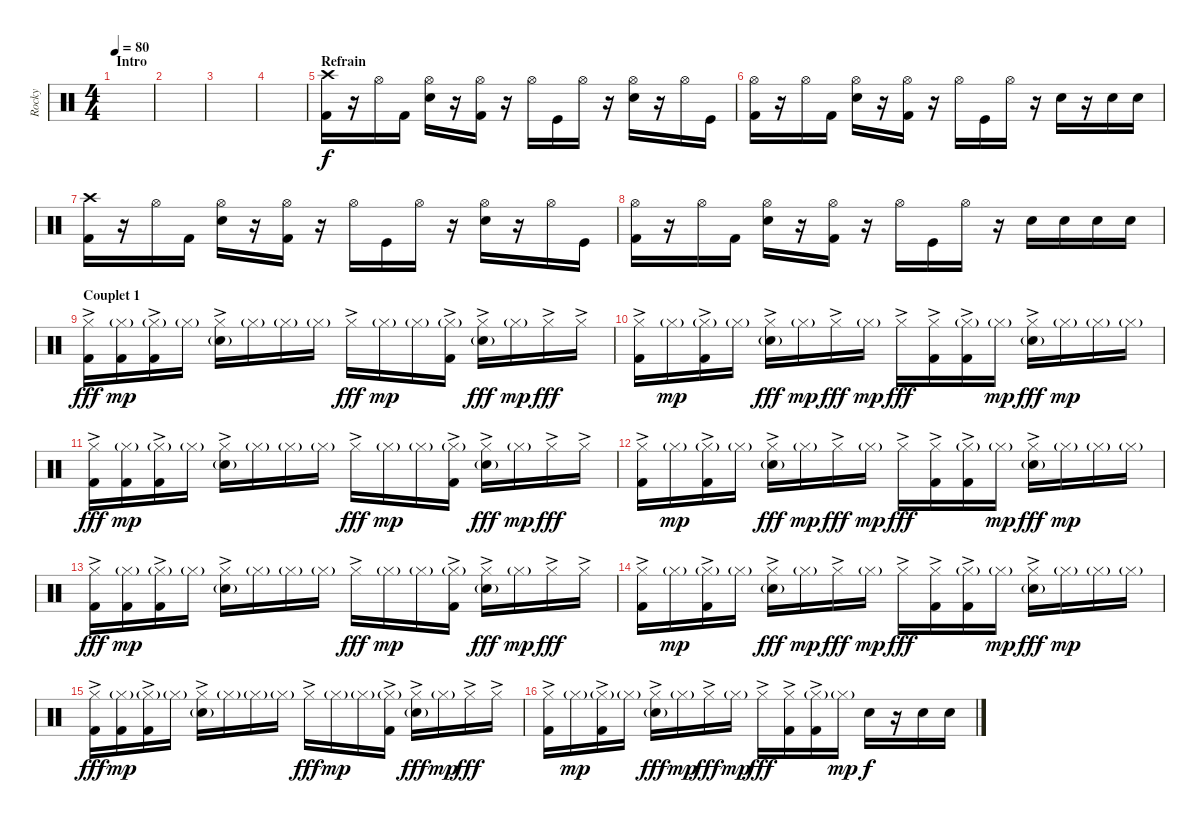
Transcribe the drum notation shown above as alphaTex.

\track ("Rocky" "Rocky") {instrument percussion}
\staff {score}
\articulation defaults
\ts (4 4)
\section ("" "Intro")
\tempo 80
\clef neutral
\ks c
|
|
|
|
\section ("" "Refrain")
("Crash high (hit)" "Kick (hit) 2").16 r.16 "Hi-Hat (open)".16 "Kick (hit) 2".16 ("Hi-Hat (open)" "Electric Snare (hit)").16 r.16 ("Hi-Hat (open)" "Kick (hit) 2").16 r.16 "Hi-Hat (open)".16 "Kick (hit)".16 "Hi-Hat (open)".16 r.16 ("Hi-Hat (open)" "Electric Snare (hit)").16 r.16 "Hi-Hat (open)".16 "Kick (hit)".16 |
("Hi-Hat (open)" "Kick (hit) 2").16 r.16 "Hi-Hat (open)".16 "Kick (hit) 2".16 ("Hi-Hat (open)" "Electric Snare (hit)").16 r.16 ("Hi-Hat (open)" "Kick (hit) 2").16 r.16 "Hi-Hat (open)".16 "Kick (hit)".16 "Hi-Hat (open)".16 r.16 "Electric Snare (hit)".16 r.16 "Electric Snare (hit)".16 "Electric Snare (hit)".16 |
("Crash high (hit)" "Kick (hit) 2").16 r.16 "Hi-Hat (open)".16 "Kick (hit) 2".16 ("Hi-Hat (open)" "Electric Snare (hit)").16 r.16 ("Hi-Hat (open)" "Kick (hit) 2").16 r.16 "Hi-Hat (open)".16 "Kick (hit)".16 "Hi-Hat (open)".16 r.16 ("Hi-Hat (open)" "Electric Snare (hit)").16 r.16 "Hi-Hat (open)".16 "Kick (hit)".16 |
("Hi-Hat (open)" "Kick (hit) 2").16 r.16 "Hi-Hat (open)".16 "Kick (hit) 2".16 ("Hi-Hat (open)" "Electric Snare (hit)").16 r.16 ("Hi-Hat (open)" "Kick (hit) 2").16 r.16 "Hi-Hat (open)".16 "Kick (hit)".16 "Hi-Hat (open)".16 r.16 "Electric Snare (hit)".16 "Electric Snare (hit)".16 "Electric Snare (hit)".16 "Electric Snare (hit)".16 |
\section ("" "Couplet 1")
("Kick (hit) 2"{ac} "Hi-Hat (closed)"{ac}).16{dy fff} ("Hi-Hat (closed)"{g} "Kick (hit) 2").16{dy mp} ("Kick (hit) 2"{ac} "Hi-Hat (closed)"{g}).16 "Hi-Hat (closed)"{g}.16 ("Snare (hit) 2"{g} "Hi-Hat (closed)"{ac}).16 "Hi-Hat (closed)"{g}.16 "Hi-Hat (closed)"{g}.16 "Hi-Hat (closed)"{g}.16 "Hi-Hat (closed)"{ac}.16{dy fff} "Hi-Hat (closed)"{g}.16{dy mp} "Hi-Hat (closed)"{g}.16 ("Kick (hit) 2"{ac} "Hi-Hat (closed)"{g ac}).16 ("Snare (hit) 2"{g} "Hi-Hat (closed)"{ac}).16{dy fff} "Hi-Hat (closed)"{g}.16{dy mp} "Hi-Hat (closed)"{ac}.16{dy fff} "Hi-Hat (closed)"{ac}.16 |
("Kick (hit) 2"{ac} "Hi-Hat (closed)"{ac}).16 "Hi-Hat (closed)"{g}.16{dy mp} ("Kick (hit) 2"{ac} "Hi-Hat (closed)"{g}).16 "Hi-Hat (closed)"{g}.16 ("Snare (hit) 2"{g} "Hi-Hat (closed)"{ac}).16{dy fff} "Hi-Hat (closed)"{g}.16{dy mp} "Hi-Hat (closed)"{ac}.16{dy fff} "Hi-Hat (closed)"{g}.16{dy mp} "Hi-Hat (closed)"{ac}.16{dy fff} ("Kick (hit) 2"{ac} "Hi-Hat (closed)"{ac}).16 ("Hi-Hat (closed)"{g} "Kick (hit) 2"{ac}).16 "Hi-Hat (closed)"{g}.16{dy mp} ("Snare (hit) 2"{g} "Hi-Hat (closed)"{ac}).16{dy fff} "Hi-Hat (closed)"{g}.16{dy mp} "Hi-Hat (closed)"{g}.16 "Hi-Hat (closed)"{g}.16 |
("Kick (hit) 2"{ac} "Hi-Hat (closed)"{ac}).16{dy fff} ("Hi-Hat (closed)"{g} "Kick (hit) 2").16{dy mp} ("Kick (hit) 2"{ac} "Hi-Hat (closed)"{g}).16 "Hi-Hat (closed)"{g}.16 ("Snare (hit) 2"{g} "Hi-Hat (closed)"{ac}).16 "Hi-Hat (closed)"{g}.16 "Hi-Hat (closed)"{g}.16 "Hi-Hat (closed)"{g}.16 "Hi-Hat (closed)"{ac}.16{dy fff} "Hi-Hat (closed)"{g}.16{dy mp} "Hi-Hat (closed)"{g}.16 ("Kick (hit) 2"{ac} "Hi-Hat (closed)"{g ac}).16 ("Snare (hit) 2"{g} "Hi-Hat (closed)"{ac}).16{dy fff} "Hi-Hat (closed)"{g}.16{dy mp} "Hi-Hat (closed)"{ac}.16{dy fff} "Hi-Hat (closed)"{ac}.16 |
("Kick (hit) 2"{ac} "Hi-Hat (closed)"{ac}).16 "Hi-Hat (closed)"{g}.16{dy mp} ("Kick (hit) 2"{ac} "Hi-Hat (closed)"{g}).16 "Hi-Hat (closed)"{g}.16 ("Snare (hit) 2"{g} "Hi-Hat (closed)"{ac}).16{dy fff} "Hi-Hat (closed)"{g}.16{dy mp} "Hi-Hat (closed)"{ac}.16{dy fff} "Hi-Hat (closed)"{g}.16{dy mp} "Hi-Hat (closed)"{ac}.16{dy fff} ("Kick (hit) 2"{ac} "Hi-Hat (closed)"{ac}).16 ("Hi-Hat (closed)"{g} "Kick (hit) 2"{ac}).16 "Hi-Hat (closed)"{g}.16{dy mp} ("Snare (hit) 2"{g} "Hi-Hat (closed)"{ac}).16{dy fff} "Hi-Hat (closed)"{g}.16{dy mp} "Hi-Hat (closed)"{g}.16 "Hi-Hat (closed)"{g}.16 |
("Kick (hit) 2"{ac} "Hi-Hat (closed)"{ac}).16{dy fff} ("Hi-Hat (closed)"{g} "Kick (hit) 2").16{dy mp} ("Kick (hit) 2"{ac} "Hi-Hat (closed)"{g}).16 "Hi-Hat (closed)"{g}.16 ("Snare (hit) 2"{g} "Hi-Hat (closed)"{ac}).16 "Hi-Hat (closed)"{g}.16 "Hi-Hat (closed)"{g}.16 "Hi-Hat (closed)"{g}.16 "Hi-Hat (closed)"{ac}.16{dy fff} "Hi-Hat (closed)"{g}.16{dy mp} "Hi-Hat (closed)"{g}.16 ("Kick (hit) 2"{ac} "Hi-Hat (closed)"{g ac}).16 ("Snare (hit) 2"{g} "Hi-Hat (closed)"{ac}).16{dy fff} "Hi-Hat (closed)"{g}.16{dy mp} "Hi-Hat (closed)"{ac}.16{dy fff} "Hi-Hat (closed)"{ac}.16 |
("Kick (hit) 2"{ac} "Hi-Hat (closed)"{ac}).16 "Hi-Hat (closed)"{g}.16{dy mp} ("Kick (hit) 2"{ac} "Hi-Hat (closed)"{g}).16 "Hi-Hat (closed)"{g}.16 ("Snare (hit) 2"{g} "Hi-Hat (closed)"{ac}).16{dy fff} "Hi-Hat (closed)"{g}.16{dy mp} "Hi-Hat (closed)"{ac}.16{dy fff} "Hi-Hat (closed)"{g}.16{dy mp} "Hi-Hat (closed)"{ac}.16{dy fff} ("Kick (hit) 2"{ac} "Hi-Hat (closed)"{ac}).16 ("Hi-Hat (closed)"{g} "Kick (hit) 2"{ac}).16 "Hi-Hat (closed)"{g}.16{dy mp} ("Snare (hit) 2"{g} "Hi-Hat (closed)"{ac}).16{dy fff} "Hi-Hat (closed)"{g}.16{dy mp} "Hi-Hat (closed)"{g}.16 "Hi-Hat (closed)"{g}.16 |
("Kick (hit) 2"{ac} "Hi-Hat (closed)"{ac}).16{dy fff} ("Hi-Hat (closed)"{g} "Kick (hit) 2").16{dy mp} ("Kick (hit) 2"{ac} "Hi-Hat (closed)"{g}).16 "Hi-Hat (closed)"{g}.16 ("Snare (hit) 2"{g} "Hi-Hat (closed)"{ac}).16 "Hi-Hat (closed)"{g}.16 "Hi-Hat (closed)"{g}.16 "Hi-Hat (closed)"{g}.16 "Hi-Hat (closed)"{ac}.16{dy fff} "Hi-Hat (closed)"{g}.16{dy mp} "Hi-Hat (closed)"{g}.16 ("Kick (hit) 2"{ac} "Hi-Hat (closed)"{g ac}).16 ("Snare (hit) 2"{g} "Hi-Hat (closed)"{ac}).16{dy fff} "Hi-Hat (closed)"{g}.16{dy mp} "Hi-Hat (closed)"{ac}.16{dy fff} "Hi-Hat (closed)"{ac}.16 |
("Kick (hit) 2"{ac} "Hi-Hat (closed)"{ac}).16 "Hi-Hat (closed)"{g}.16{dy mp} ("Kick (hit) 2"{ac} "Hi-Hat (closed)"{g}).16 "Hi-Hat (closed)"{g}.16 ("Snare (hit) 2"{g} "Hi-Hat (closed)"{ac}).16{dy fff} "Hi-Hat (closed)"{g}.16{dy mp} "Hi-Hat (closed)"{ac}.16{dy fff} "Hi-Hat (closed)"{g}.16{dy mp} "Hi-Hat (closed)"{ac}.16{dy fff} ("Kick (hit) 2"{ac} "Hi-Hat (closed)"{ac}).16 ("Hi-Hat (closed)"{g} "Kick (hit) 2"{ac}).16 "Hi-Hat (closed)"{g}.16{dy mp} "Electric Snare (hit)".16{dy f} r.16 "Electric Snare (hit)".16 "Electric Snare (hit)".16
